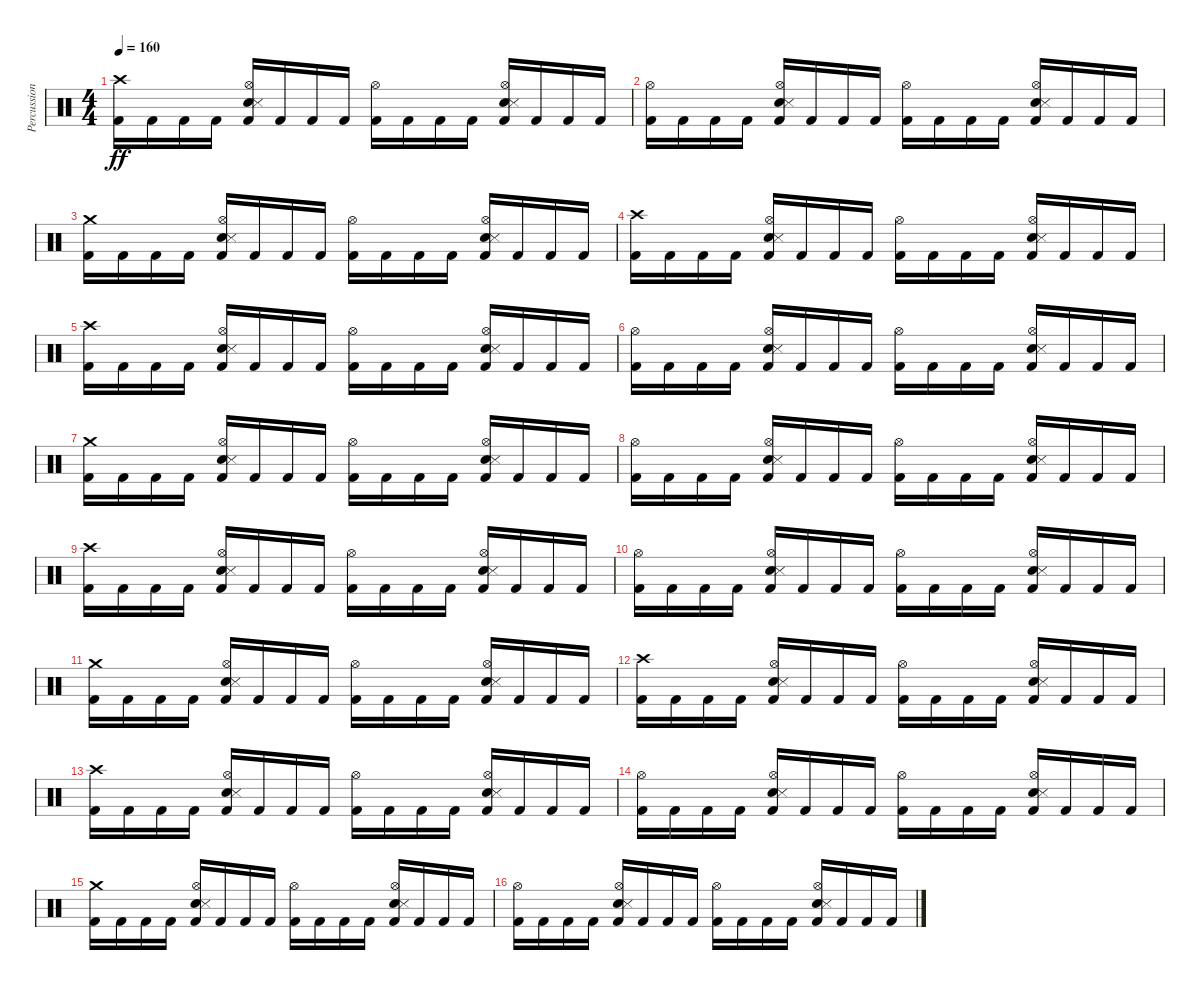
\track ("Percussions" "Percussion") {instrument percussion}
\staff {score}
\articulation defaults
\ts (4 4)
\tempo 160
\clef neutral
\ks c
("Crash high (hit)" "Kick (hit) 2").16{dy ff} "Kick (hit) 2".16 "Kick (hit) 2".16 "Kick (hit) 2".16 ("Hi-Hat (open)" "Electric Snare (hit)" "Snare (side stick) 3" "Kick (hit) 2").16 "Kick (hit) 2".16 "Kick (hit) 2".16 "Kick (hit) 2".16 ("Hi-Hat (open)" "Kick (hit) 2").16 "Kick (hit) 2".16 "Kick (hit) 2".16 "Kick (hit) 2".16 ("Hi-Hat (open)" "Electric Snare (hit)" "Snare (side stick) 3" "Kick (hit) 2").16 "Kick (hit) 2".16 "Kick (hit) 2".16 "Kick (hit) 2".16 |
("Hi-Hat (open)" "Kick (hit) 2").16 "Kick (hit) 2".16 "Kick (hit) 2".16 "Kick (hit) 2".16 ("Hi-Hat (open)" "Electric Snare (hit)" "Snare (side stick) 3" "Kick (hit) 2").16 "Kick (hit) 2".16 "Kick (hit) 2".16 "Kick (hit) 2".16 ("Hi-Hat (open)" "Kick (hit) 2").16 "Kick (hit) 2".16 "Kick (hit) 2".16 "Kick (hit) 2".16 ("Hi-Hat (open)" "Electric Snare (hit)" "Snare (side stick) 3" "Kick (hit) 2").16 "Kick (hit) 2".16 "Kick (hit) 2".16 "Kick (hit) 2".16 |
("Crash medium (hit)" "Kick (hit) 2").16 "Kick (hit) 2".16 "Kick (hit) 2".16 "Kick (hit) 2".16 ("Hi-Hat (open)" "Electric Snare (hit)" "Snare (side stick) 3" "Kick (hit) 2").16 "Kick (hit) 2".16 "Kick (hit) 2".16 "Kick (hit) 2".16 ("Hi-Hat (open)" "Kick (hit) 2").16 "Kick (hit) 2".16 "Kick (hit) 2".16 "Kick (hit) 2".16 ("Hi-Hat (open)" "Electric Snare (hit)" "Snare (side stick) 3" "Kick (hit) 2").16 "Kick (hit) 2".16 "Kick (hit) 2".16 "Kick (hit) 2".16 |
("Crash high (hit)" "Kick (hit) 2").16 "Kick (hit) 2".16 "Kick (hit) 2".16 "Kick (hit) 2".16 ("Hi-Hat (open)" "Electric Snare (hit)" "Snare (side stick) 3" "Kick (hit) 2").16 "Kick (hit) 2".16 "Kick (hit) 2".16 "Kick (hit) 2".16 ("Hi-Hat (open)" "Kick (hit) 2").16 "Kick (hit) 2".16 "Kick (hit) 2".16 "Kick (hit) 2".16 ("Hi-Hat (open)" "Electric Snare (hit)" "Snare (side stick) 3" "Kick (hit) 2").16 "Kick (hit) 2".16 "Kick (hit) 2".16 "Kick (hit) 2".16 |
("Crash high (hit)" "Kick (hit) 2").16 "Kick (hit) 2".16 "Kick (hit) 2".16 "Kick (hit) 2".16 ("Hi-Hat (open)" "Electric Snare (hit)" "Snare (side stick) 3" "Kick (hit) 2").16 "Kick (hit) 2".16 "Kick (hit) 2".16 "Kick (hit) 2".16 ("Hi-Hat (open)" "Kick (hit) 2").16 "Kick (hit) 2".16 "Kick (hit) 2".16 "Kick (hit) 2".16 ("Hi-Hat (open)" "Electric Snare (hit)" "Snare (side stick) 3" "Kick (hit) 2").16 "Kick (hit) 2".16 "Kick (hit) 2".16 "Kick (hit) 2".16 |
("Hi-Hat (open)" "Kick (hit) 2").16 "Kick (hit) 2".16 "Kick (hit) 2".16 "Kick (hit) 2".16 ("Hi-Hat (open)" "Electric Snare (hit)" "Snare (side stick) 3" "Kick (hit) 2").16 "Kick (hit) 2".16 "Kick (hit) 2".16 "Kick (hit) 2".16 ("Hi-Hat (open)" "Kick (hit) 2").16 "Kick (hit) 2".16 "Kick (hit) 2".16 "Kick (hit) 2".16 ("Hi-Hat (open)" "Electric Snare (hit)" "Snare (side stick) 3" "Kick (hit) 2").16 "Kick (hit) 2".16 "Kick (hit) 2".16 "Kick (hit) 2".16 |
("Crash medium (hit)" "Kick (hit) 2").16 "Kick (hit) 2".16 "Kick (hit) 2".16 "Kick (hit) 2".16 ("Hi-Hat (open)" "Electric Snare (hit)" "Snare (side stick) 3" "Kick (hit) 2").16 "Kick (hit) 2".16 "Kick (hit) 2".16 "Kick (hit) 2".16 ("Hi-Hat (open)" "Kick (hit) 2").16 "Kick (hit) 2".16 "Kick (hit) 2".16 "Kick (hit) 2".16 ("Hi-Hat (open)" "Electric Snare (hit)" "Snare (side stick) 3" "Kick (hit) 2").16 "Kick (hit) 2".16 "Kick (hit) 2".16 "Kick (hit) 2".16 |
("Hi-Hat (open)" "Kick (hit) 2").16 "Kick (hit) 2".16 "Kick (hit) 2".16 "Kick (hit) 2".16 ("Hi-Hat (open)" "Electric Snare (hit)" "Snare (side stick) 3" "Kick (hit) 2").16 "Kick (hit) 2".16 "Kick (hit) 2".16 "Kick (hit) 2".16 ("Hi-Hat (open)" "Kick (hit) 2").16 "Kick (hit) 2".16 "Kick (hit) 2".16 "Kick (hit) 2".16 ("Hi-Hat (open)" "Electric Snare (hit)" "Snare (side stick) 3" "Kick (hit) 2").16 "Kick (hit) 2".16 "Kick (hit) 2".16 "Kick (hit) 2".16 |
("Crash high (hit)" "Kick (hit) 2").16 "Kick (hit) 2".16 "Kick (hit) 2".16 "Kick (hit) 2".16 ("Hi-Hat (open)" "Electric Snare (hit)" "Snare (side stick) 3" "Kick (hit) 2").16 "Kick (hit) 2".16 "Kick (hit) 2".16 "Kick (hit) 2".16 ("Hi-Hat (open)" "Kick (hit) 2").16 "Kick (hit) 2".16 "Kick (hit) 2".16 "Kick (hit) 2".16 ("Hi-Hat (open)" "Electric Snare (hit)" "Snare (side stick) 3" "Kick (hit) 2").16 "Kick (hit) 2".16 "Kick (hit) 2".16 "Kick (hit) 2".16 |
("Hi-Hat (open)" "Kick (hit) 2").16 "Kick (hit) 2".16 "Kick (hit) 2".16 "Kick (hit) 2".16 ("Hi-Hat (open)" "Electric Snare (hit)" "Snare (side stick) 3" "Kick (hit) 2").16 "Kick (hit) 2".16 "Kick (hit) 2".16 "Kick (hit) 2".16 ("Hi-Hat (open)" "Kick (hit) 2").16 "Kick (hit) 2".16 "Kick (hit) 2".16 "Kick (hit) 2".16 ("Hi-Hat (open)" "Electric Snare (hit)" "Snare (side stick) 3" "Kick (hit) 2").16 "Kick (hit) 2".16 "Kick (hit) 2".16 "Kick (hit) 2".16 |
("Crash medium (hit)" "Kick (hit) 2").16 "Kick (hit) 2".16 "Kick (hit) 2".16 "Kick (hit) 2".16 ("Hi-Hat (open)" "Electric Snare (hit)" "Snare (side stick) 3" "Kick (hit) 2").16 "Kick (hit) 2".16 "Kick (hit) 2".16 "Kick (hit) 2".16 ("Hi-Hat (open)" "Kick (hit) 2").16 "Kick (hit) 2".16 "Kick (hit) 2".16 "Kick (hit) 2".16 ("Hi-Hat (open)" "Electric Snare (hit)" "Snare (side stick) 3" "Kick (hit) 2").16 "Kick (hit) 2".16 "Kick (hit) 2".16 "Kick (hit) 2".16 |
("Crash high (hit)" "Kick (hit) 2").16 "Kick (hit) 2".16 "Kick (hit) 2".16 "Kick (hit) 2".16 ("Hi-Hat (open)" "Electric Snare (hit)" "Snare (side stick) 3" "Kick (hit) 2").16 "Kick (hit) 2".16 "Kick (hit) 2".16 "Kick (hit) 2".16 ("Hi-Hat (open)" "Kick (hit) 2").16 "Kick (hit) 2".16 "Kick (hit) 2".16 "Kick (hit) 2".16 ("Hi-Hat (open)" "Electric Snare (hit)" "Snare (side stick) 3" "Kick (hit) 2").16 "Kick (hit) 2".16 "Kick (hit) 2".16 "Kick (hit) 2".16 |
("Crash high (hit)" "Kick (hit) 2").16 "Kick (hit) 2".16 "Kick (hit) 2".16 "Kick (hit) 2".16 ("Hi-Hat (open)" "Electric Snare (hit)" "Snare (side stick) 3" "Kick (hit) 2").16 "Kick (hit) 2".16 "Kick (hit) 2".16 "Kick (hit) 2".16 ("Hi-Hat (open)" "Kick (hit) 2").16 "Kick (hit) 2".16 "Kick (hit) 2".16 "Kick (hit) 2".16 ("Hi-Hat (open)" "Electric Snare (hit)" "Snare (side stick) 3" "Kick (hit) 2").16 "Kick (hit) 2".16 "Kick (hit) 2".16 "Kick (hit) 2".16 |
("Hi-Hat (open)" "Kick (hit) 2").16 "Kick (hit) 2".16 "Kick (hit) 2".16 "Kick (hit) 2".16 ("Hi-Hat (open)" "Electric Snare (hit)" "Snare (side stick) 3" "Kick (hit) 2").16 "Kick (hit) 2".16 "Kick (hit) 2".16 "Kick (hit) 2".16 ("Hi-Hat (open)" "Kick (hit) 2").16 "Kick (hit) 2".16 "Kick (hit) 2".16 "Kick (hit) 2".16 ("Hi-Hat (open)" "Electric Snare (hit)" "Snare (side stick) 3" "Kick (hit) 2").16 "Kick (hit) 2".16 "Kick (hit) 2".16 "Kick (hit) 2".16 |
("Crash medium (hit)" "Kick (hit) 2").16 "Kick (hit) 2".16 "Kick (hit) 2".16 "Kick (hit) 2".16 ("Hi-Hat (open)" "Electric Snare (hit)" "Snare (side stick) 3" "Kick (hit) 2").16 "Kick (hit) 2".16 "Kick (hit) 2".16 "Kick (hit) 2".16 ("Hi-Hat (open)" "Kick (hit) 2").16 "Kick (hit) 2".16 "Kick (hit) 2".16 "Kick (hit) 2".16 ("Hi-Hat (open)" "Electric Snare (hit)" "Snare (side stick) 3" "Kick (hit) 2").16 "Kick (hit) 2".16 "Kick (hit) 2".16 "Kick (hit) 2".16 |
("Hi-Hat (open)" "Kick (hit) 2").16 "Kick (hit) 2".16 "Kick (hit) 2".16 "Kick (hit) 2".16 ("Hi-Hat (open)" "Electric Snare (hit)" "Snare (side stick) 3" "Kick (hit) 2").16 "Kick (hit) 2".16 "Kick (hit) 2".16 "Kick (hit) 2".16 ("Hi-Hat (open)" "Kick (hit) 2").16 "Kick (hit) 2".16 "Kick (hit) 2".16 "Kick (hit) 2".16 ("Hi-Hat (open)" "Electric Snare (hit)" "Snare (side stick) 3" "Kick (hit) 2").16 "Kick (hit) 2".16 "Kick (hit) 2".16 "Kick (hit) 2".16
